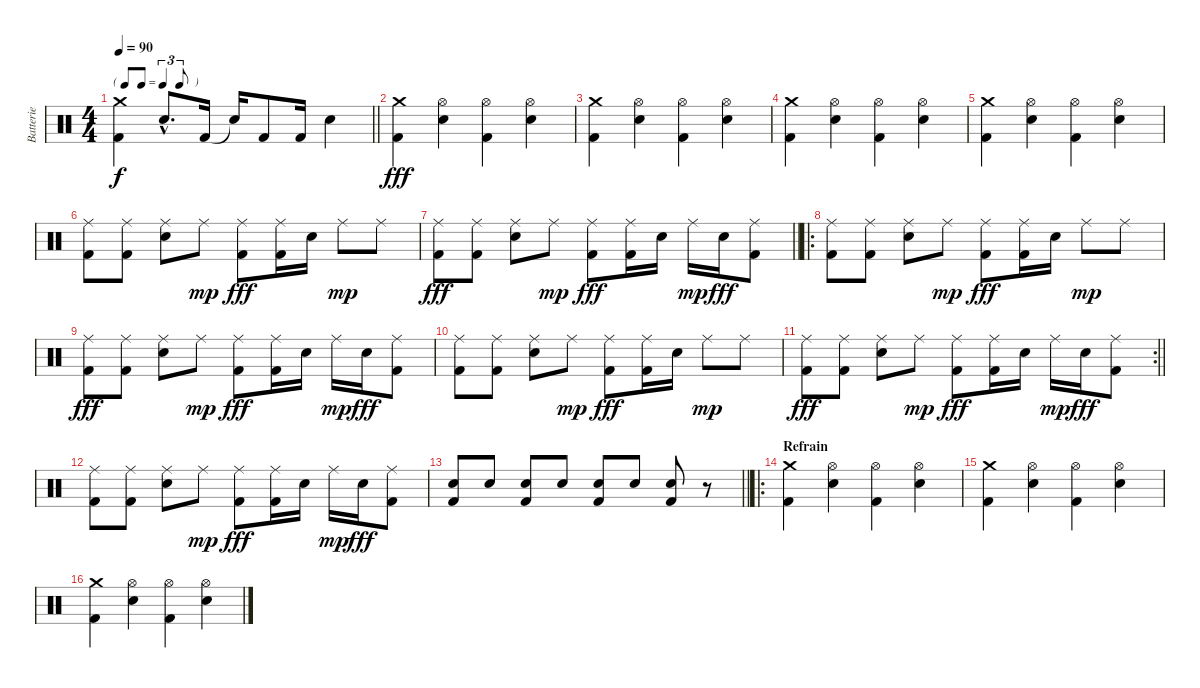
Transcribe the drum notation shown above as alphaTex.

\track ("Batterie" "Batterie") {instrument percussion}
\staff {score}
\articulation defaults
\ts (4 4)
\tf triplet8th
\tempo 90
\clef neutral
\barLineRight lightlight
\ks c
("Crash medium (hit)" "Kick (hit) 2").4{dy f} "Electric Snare (hit)"{hac}.8{d} "Kick (hit) 2".16 "Snare (hit)"{t}.16 "Kick (hit) 2".8 "Kick (hit) 2".16 "Electric Snare (hit)".4 |
("Crash medium (hit)" "Kick (hit) 2").4{dy fff} ("Hi-Hat (open)" "Electric Snare (hit)").4 ("Hi-Hat (open)" "Kick (hit) 2").4 ("Hi-Hat (open)" "Electric Snare (hit)").4 |
("Crash medium (hit)" "Kick (hit) 2").4 ("Hi-Hat (open)" "Electric Snare (hit)").4 ("Hi-Hat (open)" "Kick (hit) 2").4 ("Hi-Hat (open)" "Electric Snare (hit)").4 |
("Crash medium (hit)" "Kick (hit) 2").4 ("Hi-Hat (open)" "Electric Snare (hit)").4 ("Hi-Hat (open)" "Kick (hit) 2").4 ("Hi-Hat (open)" "Electric Snare (hit)").4 |
("Crash medium (hit)" "Kick (hit) 2").4 ("Hi-Hat (open)" "Electric Snare (hit)").4 ("Hi-Hat (open)" "Kick (hit) 2").4 ("Hi-Hat (open)" "Electric Snare (hit)").4 |
("Ride (middle)" "Kick (hit) 2").8 ("Ride (middle)" "Kick (hit) 2").8 ("Ride (middle)" "Electric Snare (hit)").8 "Ride (middle)".8{dy mp} ("Ride (middle)" "Kick (hit) 2").8{dy fff} ("Ride (middle)" "Kick (hit) 2").16 "Electric Snare (hit)".16 "Ride (middle)".8{dy mp} "Ride (middle)".8 |
\barLineRight lightlight
("Ride (middle)" "Kick (hit) 2").8{dy fff} ("Ride (middle)" "Kick (hit) 2").8 ("Ride (middle)" "Electric Snare (hit)").8 "Ride (middle)".8{dy mp} ("Ride (middle)" "Kick (hit) 2").8{dy fff} ("Ride (middle)" "Kick (hit) 2").16 "Electric Snare (hit)".16 "Ride (middle)".16{dy mp} "Electric Snare (hit)".16{dy fff} ("Ride (middle)" "Kick (hit) 2").8 |
\ro
("Ride (middle)" "Kick (hit) 2").8 ("Ride (middle)" "Kick (hit) 2").8 ("Ride (middle)" "Electric Snare (hit)").8 "Ride (middle)".8{dy mp} ("Ride (middle)" "Kick (hit) 2").8{dy fff} ("Ride (middle)" "Kick (hit) 2").16 "Electric Snare (hit)".16 "Ride (middle)".8{dy mp} "Ride (middle)".8 |
("Ride (middle)" "Kick (hit) 2").8{dy fff} ("Ride (middle)" "Kick (hit) 2").8 ("Ride (middle)" "Electric Snare (hit)").8 "Ride (middle)".8{dy mp} ("Ride (middle)" "Kick (hit) 2").8{dy fff} ("Ride (middle)" "Kick (hit) 2").16 "Electric Snare (hit)".16 "Ride (middle)".16{dy mp} "Electric Snare (hit)".16{dy fff} ("Ride (middle)" "Kick (hit) 2").8 |
("Ride (middle)" "Kick (hit) 2").8 ("Ride (middle)" "Kick (hit) 2").8 ("Ride (middle)" "Electric Snare (hit)").8 "Ride (middle)".8{dy mp} ("Ride (middle)" "Kick (hit) 2").8{dy fff} ("Ride (middle)" "Kick (hit) 2").16 "Electric Snare (hit)".16 "Ride (middle)".8{dy mp} "Ride (middle)".8 |
\rc 2
\barLineRight lightlight
("Ride (middle)" "Kick (hit) 2").8{dy fff} ("Ride (middle)" "Kick (hit) 2").8 ("Ride (middle)" "Electric Snare (hit)").8 "Ride (middle)".8{dy mp} ("Ride (middle)" "Kick (hit) 2").8{dy fff} ("Ride (middle)" "Kick (hit) 2").16 "Electric Snare (hit)".16 "Ride (middle)".16{dy mp} "Electric Snare (hit)".16{dy fff} ("Ride (middle)" "Kick (hit) 2").8 |
("Ride (middle)" "Kick (hit) 2").8 ("Ride (middle)" "Kick (hit) 2").8 ("Ride (middle)" "Electric Snare (hit)").8 "Ride (middle)".8{dy mp} ("Ride (middle)" "Kick (hit) 2").8{dy fff} ("Ride (middle)" "Kick (hit) 2").16 "Electric Snare (hit)".16 "Ride (middle)".16{dy mp} "Electric Snare (hit)".16{dy fff} ("Ride (middle)" "Kick (hit) 2").8 |
\barLineRight lightlight
("Electric Snare (hit)" "Kick (hit) 2").8 "Electric Snare (hit)".8 ("Electric Snare (hit)" "Kick (hit) 2").8 "Electric Snare (hit)".8 ("Electric Snare (hit)" "Kick (hit) 2").8 "Electric Snare (hit)".8 ("Electric Snare (hit)" "Kick (hit) 2").8 r.8 |
\ro
\section ("" "Refrain")
("Crash medium (hit)" "Kick (hit) 2").4 ("Hi-Hat (open)" "Electric Snare (hit)").4 ("Hi-Hat (open)" "Kick (hit) 2").4 ("Hi-Hat (open)" "Electric Snare (hit)").4 |
("Crash medium (hit)" "Kick (hit) 2").4 ("Hi-Hat (open)" "Electric Snare (hit)").4 ("Hi-Hat (open)" "Kick (hit) 2").4 ("Hi-Hat (open)" "Electric Snare (hit)").4 |
("Crash medium (hit)" "Kick (hit) 2").4 ("Hi-Hat (open)" "Electric Snare (hit)").4 ("Hi-Hat (open)" "Kick (hit) 2").4 ("Hi-Hat (open)" "Electric Snare (hit)").4
